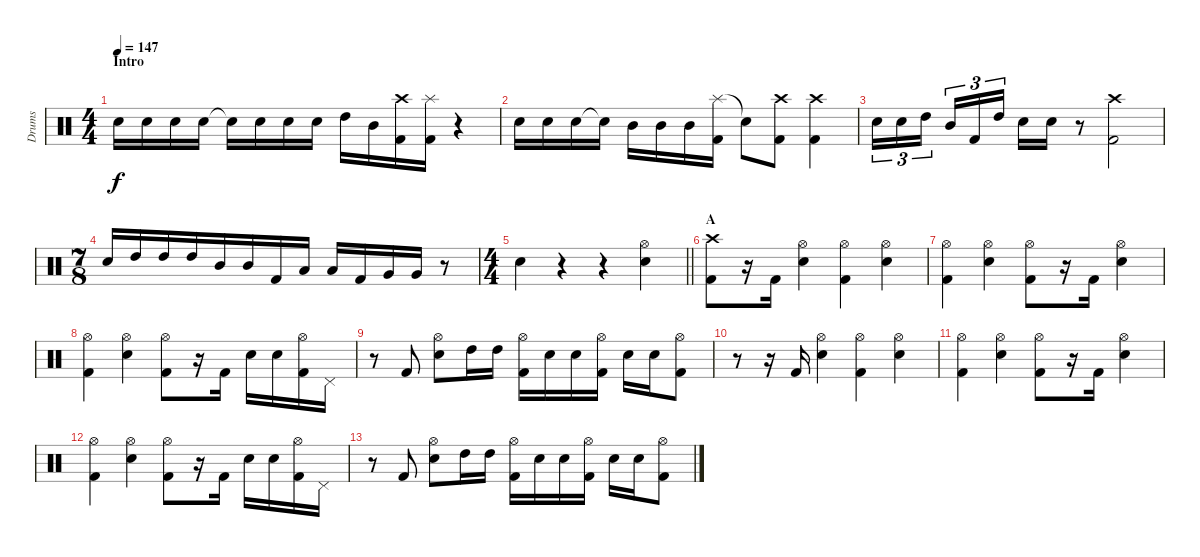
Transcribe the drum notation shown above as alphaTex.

\track ("Drums" "Drums") {instrument percussion}
\staff {score}
\articulation defaults
\ts (4 4)
\section ("" "Intro")
\tempo 147
\clef neutral
\ks c "Electric Snare (hit)".16{dy f} "Electric Snare (hit)".16 "Electric Snare (hit)".16 "Electric Snare (hit)".16 "Snare (hit)"{t}.16 "Electric Snare (hit)".16 "Electric Snare (hit)".16 "Electric Snare (hit)".16 "High Tom (hit)".16 "Mid Tom (hit)".16
("Kick (hit) 2" "Crash high (hit)").16 ("Kick (hit) 2" "Splash (hit)").16 r.4 |
"Electric Snare (hit)".16 "Electric Snare (hit)".16 "Electric Snare (hit)".16 "Snare (hit)"{t}.16 "Mid Tom (hit)".16 "Mid Tom (hit)".16 "Mid Tom (hit)".16 ("Splash (hit)" "Kick (hit) 2").16 "Snare (hit)"{t}.8 ("Crash high (hit)" "Kick (hit) 2").8 ("Crash high (hit)" "Kick (hit) 2").4 |
"Electric Snare (hit)".16{tu (3 2)} "Electric Snare (hit)".16{tu (3 2)} "High Tom (hit)".16{tu (3 2) beam splitsecondary} "Mid Tom (hit)".16{tu (3 2)} "Kick (hit) 2".16{tu (3 2)} "High Tom (hit)".16{tu (3 2)} "Electric Snare (hit)".16 "Electric Snare (hit)".16 r.8 ("Crash high (hit)" "Kick (hit) 2").2 |
\ts (7 8)
"Electric Snare (hit)".16 "High Tom (hit)".16 "High Tom (hit)".16 "High Tom (hit)".16 "Mid Tom (hit)".16 "Mid Tom (hit)".16 "Kick (hit) 2".16 "Low Tom (hit)".16 "Low Tom (hit)".16 "Kick (hit) 2".16 "Very Low Tom (hit)".16 "Very Low Tom (hit)".16 r.8 |
\ts (4 4)
\barLineRight lightlight "Electric Snare (hit)".4
r.4 r.4 ("Electric Snare (hit)" "Hi-Hat (open)").4 |
\section ("" "A")
("Kick (hit) 2" "Crash high (hit)").8 r.16 "Kick (hit) 2".16 ("Electric Snare (hit)" "Hi-Hat (open)").4 ("Kick (hit) 2" "Hi-Hat (open)").4 ("Electric Snare (hit)" "Hi-Hat (open)").4 |
("Kick (hit) 2" "Hi-Hat (open)").4 ("Electric Snare (hit)" "Hi-Hat (open)").4 ("Kick (hit) 2" "Hi-Hat (open)").8 r.16 "Kick (hit) 2".16 ("Electric Snare (hit)" "Hi-Hat (open)").4 |
("Kick (hit) 2" "Hi-Hat (open)").4 ("Electric Snare (hit)" "Hi-Hat (open)").4 ("Kick (hit) 2" "Hi-Hat (open)").8 r.16 "Kick (hit) 2".16 "Electric Snare (hit)".16 "Electric Snare (hit)".16 ("Kick (hit) 2" "Hi-Hat (open)").16 "Pedal Hi-Hat (hit)".16 |
r.8 "Kick (hit) 2".8 ("Hi-Hat (open)" "Electric Snare (hit)").8 "High Tom (hit)".16 "High Tom (hit)".16 ("Kick (hit) 2" "Hi-Hat (open)").16 "Electric Snare (hit)".16 "Electric Snare (hit)".16 ("Kick (hit) 2" "Hi-Hat (open)").16 "Electric Snare (hit)".16 "Electric Snare (hit)".16 ("Kick (hit) 2" "Hi-Hat (open)").8 |
r.8 r.16 "Kick (hit) 2".16 ("Electric Snare (hit)" "Hi-Hat (open)").4 ("Kick (hit) 2" "Hi-Hat (open)").4 ("Electric Snare (hit)" "Hi-Hat (open)").4 |
("Kick (hit) 2" "Hi-Hat (open)").4 ("Electric Snare (hit)" "Hi-Hat (open)").4 ("Kick (hit) 2" "Hi-Hat (open)").8 r.16 "Kick (hit) 2".16 ("Electric Snare (hit)" "Hi-Hat (open)").4 |
("Kick (hit) 2" "Hi-Hat (open)").4 ("Electric Snare (hit)" "Hi-Hat (open)").4 ("Kick (hit) 2" "Hi-Hat (open)").8 r.16 "Kick (hit) 2".16 "Electric Snare (hit)".16 "Electric Snare (hit)".16 ("Kick (hit) 2" "Hi-Hat (open)").16 "Pedal Hi-Hat (hit)".16 |
r.8 "Kick (hit) 2".8 ("Hi-Hat (open)" "Electric Snare (hit)").8 "High Tom (hit)".16 "High Tom (hit)".16 ("Kick (hit) 2" "Hi-Hat (open)").16 "Electric Snare (hit)".16 "Electric Snare (hit)".16 ("Kick (hit) 2" "Hi-Hat (open)").16 "Electric Snare (hit)".16 "Electric Snare (hit)".16 ("Kick (hit) 2" "Hi-Hat (open)").8
